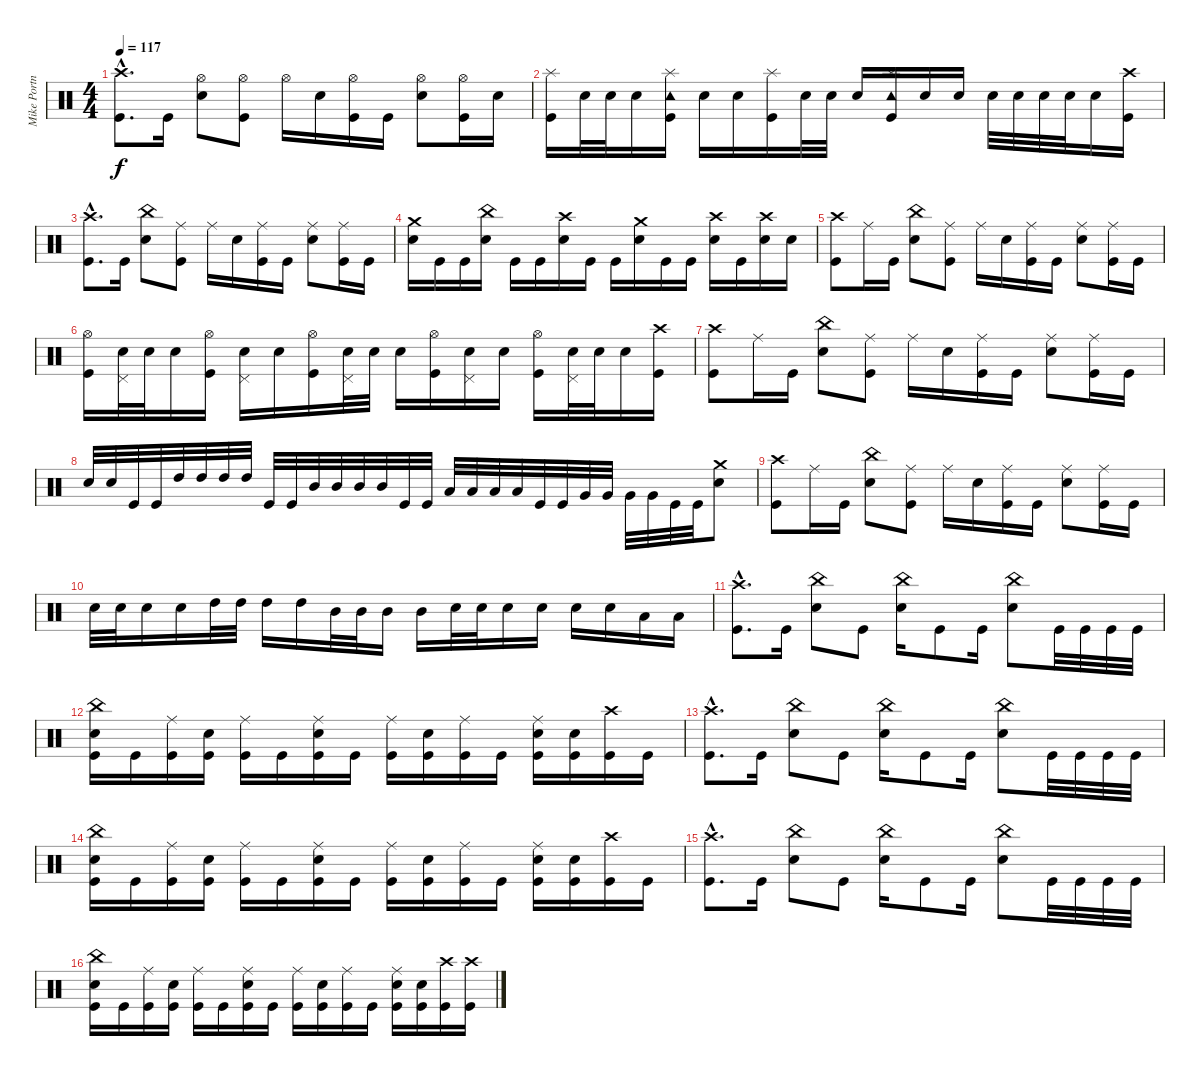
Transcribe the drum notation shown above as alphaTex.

\track ("Mike Portnoy" "Mike Portn") {instrument percussion}
\staff {score}
\articulation defaults
\ts (4 4)
\tempo 117
\clef neutral
\ks c
("Crash high (hit)"{hac} "Kick (hit)"{hac}).8{d dy f} "Kick (hit)".16 ("Hi-Hat (open)" "Electric Snare (hit)").8 ("Hi-Hat (open)" "Kick (hit)").8 "Hi-Hat (open)".16 "Electric Snare (hit)".16 ("Hi-Hat (open)" "Kick (hit)").16 "Kick (hit)".16 ("Hi-Hat (open)" "Electric Snare (hit)").8 ("Hi-Hat (open)" "Kick (hit)").16 "Electric Snare (hit)".16 |
("Splash (hit)" "Kick (hit)").16 "Electric Snare (hit)".32 "Electric Snare (hit)".32 "Electric Snare (hit)".16 ("Splash (hit)" "Tambourine (hit)" "Kick (hit)").16 "Electric Snare (hit)".16 "Electric Snare (hit)".16 ("Splash (hit)" "Kick (hit)").16 "Electric Snare (hit)".32 "Electric Snare (hit)".32 "Electric Snare (hit)".16 ("Splash (hit)" "Tambourine (hit)" "Kick (hit)").16 "Electric Snare (hit)".16 "Electric Snare (hit)".16 "Electric Snare (hit)".32 "Electric Snare (hit)".32 "Electric Snare (hit)".32 "Electric Snare (hit)".32 "Electric Snare (hit)".16 ("Crash high (hit)" "Kick (hit)").16 |
("Crash high (hit)"{hac} "Kick (hit)"{hac}).8{d} "Kick (hit)".16 ("China (hit)" "Electric Snare (hit)").8 ("Ride (middle)" "Kick (hit)").8 "Ride (middle)".16 "Electric Snare (hit)".16 ("Ride (middle)" "Kick (hit)").16 "Kick (hit)".16 ("Ride (middle)" "Electric Snare (hit)").8 ("Ride (middle)" "Kick (hit)").16 "Kick (hit)".16 |
("Crash medium (hit)" "Electric Snare (hit)").16 "Kick (hit)".16 "Kick (hit)".16 ("China (hit)" "Electric Snare (hit)").16 "Kick (hit)".16 "Kick (hit)".16 ("Crash high (hit)" "Electric Snare (hit)").16 "Kick (hit)".16 "Kick (hit)".16 ("Crash medium (hit)" "Electric Snare (hit)").16 "Kick (hit)".16 "Kick (hit)".16 ("Crash high (hit)" "Electric Snare (hit)").16 "Kick (hit)".16 ("Crash high (hit)" "Electric Snare (hit)").16 "Electric Snare (hit)".16 |
("Crash high (hit)" "Kick (hit)").8 "Ride (middle)".16 "Kick (hit)".16 ("China (hit)" "Electric Snare (hit)").8 ("Ride (middle)" "Kick (hit)").8 "Ride (middle)".16 "Electric Snare (hit)".16 ("Ride (middle)" "Kick (hit)").16 "Kick (hit)".16 ("Ride (middle)" "Electric Snare (hit)").8 ("Ride (middle)" "Kick (hit)").16 "Kick (hit)".16 |
("Hi-Hat (open)" "Kick (hit)").16 ("Electric Snare (hit)" "Pedal Hi-Hat (hit)").32 "Electric Snare (hit)".32 "Electric Snare (hit)".16 ("Hi-Hat (open)" "Kick (hit)").16 ("Electric Snare (hit)" "Pedal Hi-Hat (hit)").16 "Electric Snare (hit)".16 ("Hi-Hat (open)" "Kick (hit)").16 ("Electric Snare (hit)" "Pedal Hi-Hat (hit)").32 "Electric Snare (hit)".32 "Electric Snare (hit)".16 ("Hi-Hat (open)" "Kick (hit)").16 ("Electric Snare (hit)" "Pedal Hi-Hat (hit)").16 "Electric Snare (hit)".16 ("Hi-Hat (open)" "Kick (hit)").16 ("Electric Snare (hit)" "Pedal Hi-Hat (hit)").32 "Electric Snare (hit)".32 "Electric Snare (hit)".16 ("Crash high (hit)" "Kick (hit)").16 |
("Crash high (hit)" "Kick (hit)").8 "Ride (middle)".16 "Kick (hit)".16 ("China (hit)" "Electric Snare (hit)").8 ("Ride (middle)" "Kick (hit)").8 "Ride (middle)".16 "Electric Snare (hit)".16 ("Ride (middle)" "Kick (hit)").16 "Kick (hit)".16 ("Ride (middle)" "Electric Snare (hit)").8 ("Ride (middle)" "Kick (hit)").16 "Kick (hit)".16 |
"Electric Snare (hit)".32 "Electric Snare (hit)".32 "Kick (hit)".32 "Kick (hit)".32 "High Tom (hit)".32 "High Tom (hit)".32 "High Tom (hit)".32 "High Tom (hit)".32 "Kick (hit)".32 "Kick (hit)".32 "Mid Tom (hit)".32 "Mid Tom (hit)".32 "Mid Tom (hit)".32 "Mid Tom (hit)".32 "Kick (hit)".32 "Kick (hit)".32 "Low Tom (hit)".32 "Low Tom (hit)".32 "Low Tom (hit)".32 "Low Tom (hit)".32 "Kick (hit)".32 "Kick (hit)".32 "Very Low Tom (hit)".32 "Very Low Tom (hit)".32 "Very Low Tom (hit)".32 "Very Low Tom (hit)".32 "Kick (hit)".32 "Kick (hit)".32 ("Crash medium (hit)" "Electric Snare (hit)").8 |
("Crash high (hit)" "Kick (hit)").8 "Ride (middle)".16 "Kick (hit)".16 ("China (hit)" "Electric Snare (hit)").8 ("Ride (middle)" "Kick (hit)").8 "Ride (middle)".16 "Electric Snare (hit)".16 ("Ride (middle)" "Kick (hit)").16 "Kick (hit)".16 ("Ride (middle)" "Electric Snare (hit)").8 ("Ride (middle)" "Kick (hit)").16 "Kick (hit)".16 |
"Electric Snare (hit)".32 "Electric Snare (hit)".32 "Electric Snare (hit)".16 "Electric Snare (hit)".16 "High Tom (hit)".32 "High Tom (hit)".32 "High Tom (hit)".16 "High Tom (hit)".16 "Mid Tom (hit)".32 "Mid Tom (hit)".32 "Mid Tom (hit)".16 "Mid Tom (hit)".16 "Electric Snare (hit)".32 "Electric Snare (hit)".32 "Electric Snare (hit)".16 "Electric Snare (hit)".16 "Electric Snare (hit)".16 "Electric Snare (hit)".16 "Low Tom (hit)".16 "Low Tom (hit)".16 |
("Crash high (hit)"{hac} "Kick (hit)"{hac}).8{d} "Kick (hit)".16 ("China (hit)" "Electric Snare (hit)").8 "Kick (hit)".8 ("China (hit)" "Electric Snare (hit)").16 "Kick (hit)".8 "Kick (hit)".16 ("China (hit)" "Electric Snare (hit)").8 "Kick (hit)".32 "Kick (hit)".32 "Kick (hit)".32 "Kick (hit)".32 |
("China (hit)" "Electric Snare (hit)" "Kick (hit)").16 "Kick (hit)".16 ("Ride (middle)" "Kick (hit)").16 ("Electric Snare (hit)" "Kick (hit)").16 ("Ride (middle)" "Kick (hit)").16 "Kick (hit)".16 ("Ride (middle)" "Electric Snare (hit)" "Kick (hit)").16 "Kick (hit)".16 ("Ride (middle)" "Kick (hit)").16 ("Electric Snare (hit)" "Kick (hit)").16 ("Ride (middle)" "Kick (hit)").16 "Kick (hit)".16 ("Ride (middle)" "Electric Snare (hit)" "Kick (hit)").16 ("Electric Snare (hit)" "Kick (hit)").16 ("Crash high (hit)" "Kick (hit)").16 "Kick (hit)".16 |
("Crash high (hit)"{hac} "Kick (hit)"{hac}).8{d} "Kick (hit)".16 ("China (hit)" "Electric Snare (hit)").8 "Kick (hit)".8 ("China (hit)" "Electric Snare (hit)").16 "Kick (hit)".8 "Kick (hit)".16 ("China (hit)" "Electric Snare (hit)").8 "Kick (hit)".32 "Kick (hit)".32 "Kick (hit)".32 "Kick (hit)".32 |
("China (hit)" "Electric Snare (hit)" "Kick (hit)").16 "Kick (hit)".16 ("Ride (middle)" "Kick (hit)").16 ("Electric Snare (hit)" "Kick (hit)").16 ("Ride (middle)" "Kick (hit)").16 "Kick (hit)".16 ("Ride (middle)" "Electric Snare (hit)" "Kick (hit)").16 "Kick (hit)".16 ("Ride (middle)" "Kick (hit)").16 ("Electric Snare (hit)" "Kick (hit)").16 ("Ride (middle)" "Kick (hit)").16 "Kick (hit)".16 ("Ride (middle)" "Electric Snare (hit)" "Kick (hit)").16 ("Electric Snare (hit)" "Kick (hit)").16 ("Crash high (hit)" "Kick (hit)").16 "Kick (hit)".16 |
("Crash high (hit)"{hac} "Kick (hit)"{hac}).8{d} "Kick (hit)".16 ("China (hit)" "Electric Snare (hit)").8 "Kick (hit)".8 ("China (hit)" "Electric Snare (hit)").16 "Kick (hit)".8 "Kick (hit)".16 ("China (hit)" "Electric Snare (hit)").8 "Kick (hit)".32 "Kick (hit)".32 "Kick (hit)".32 "Kick (hit)".32 |
("China (hit)" "Electric Snare (hit)" "Kick (hit)").16 "Kick (hit)".16 ("Ride (middle)" "Kick (hit)").16 ("Electric Snare (hit)" "Kick (hit)").16 ("Ride (middle)" "Kick (hit)").16 "Kick (hit)".16 ("Ride (middle)" "Electric Snare (hit)" "Kick (hit)").16 "Kick (hit)".16 ("Ride (middle)" "Kick (hit)").16 ("Electric Snare (hit)" "Kick (hit)").16 ("Ride (middle)" "Kick (hit)").16 "Kick (hit)".16 ("Ride (middle)" "Electric Snare (hit)" "Kick (hit)").16 ("Electric Snare (hit)" "Kick (hit)").16 ("Crash high (hit)" "Kick (hit)").16 ("Crash high (hit)" "Kick (hit)").16
